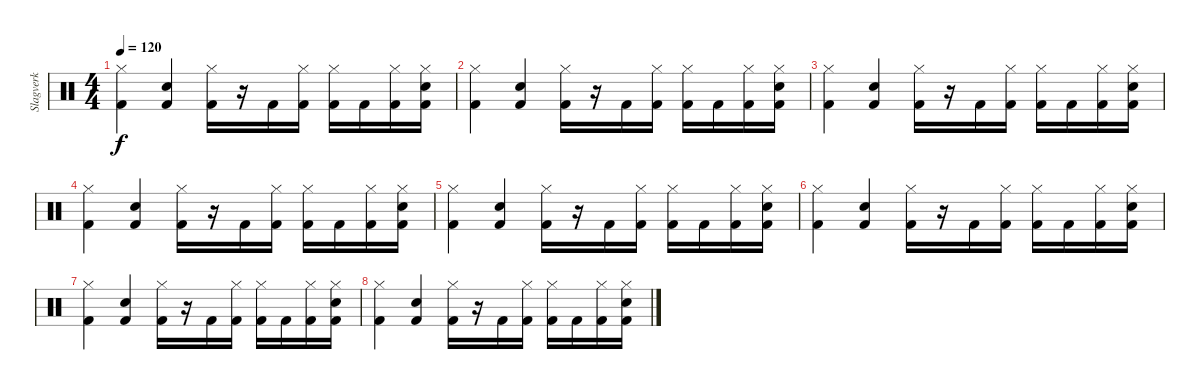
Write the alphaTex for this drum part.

\track ("Slagverk" "Slagverk") {instrument percussion}
\staff {score}
\articulation defaults
\ts (4 4)
\tempo 120
\clef neutral
\ks c
("Kick (hit) 2" "Hi-Hat (closed)").4{dy f} ("Kick (hit) 2" "Electric Snare (hit)").4 ("Kick (hit) 2" "Hi-Hat (closed)").16 r.16 "Kick (hit) 2".16 ("Kick (hit) 2" "Hi-Hat (closed)").16 ("Kick (hit) 2" "Hi-Hat (closed)").16 "Kick (hit) 2".16 ("Kick (hit) 2" "Hi-Hat (closed)").16 ("Kick (hit) 2" "Hi-Hat (closed)" "Electric Snare (hit)").16 |
("Kick (hit) 2" "Hi-Hat (closed)").4 ("Kick (hit) 2" "Electric Snare (hit)").4 ("Kick (hit) 2" "Hi-Hat (closed)").16 r.16 "Kick (hit) 2".16 ("Kick (hit) 2" "Hi-Hat (closed)").16 ("Kick (hit) 2" "Hi-Hat (closed)").16 "Kick (hit) 2".16 ("Kick (hit) 2" "Hi-Hat (closed)").16 ("Kick (hit) 2" "Hi-Hat (closed)" "Electric Snare (hit)").16 |
("Kick (hit) 2" "Hi-Hat (closed)").4 ("Kick (hit) 2" "Electric Snare (hit)").4 ("Kick (hit) 2" "Hi-Hat (closed)").16 r.16 "Kick (hit) 2".16 ("Kick (hit) 2" "Hi-Hat (closed)").16 ("Kick (hit) 2" "Hi-Hat (closed)").16 "Kick (hit) 2".16 ("Kick (hit) 2" "Hi-Hat (closed)").16 ("Kick (hit) 2" "Hi-Hat (closed)" "Electric Snare (hit)").16 |
("Kick (hit) 2" "Hi-Hat (closed)").4 ("Kick (hit) 2" "Electric Snare (hit)").4 ("Kick (hit) 2" "Hi-Hat (closed)").16 r.16 "Kick (hit) 2".16 ("Kick (hit) 2" "Hi-Hat (closed)").16 ("Kick (hit) 2" "Hi-Hat (closed)").16 "Kick (hit) 2".16 ("Kick (hit) 2" "Hi-Hat (closed)").16 ("Kick (hit) 2" "Hi-Hat (closed)" "Electric Snare (hit)").16 |
("Kick (hit) 2" "Hi-Hat (closed)").4 ("Kick (hit) 2" "Electric Snare (hit)").4 ("Kick (hit) 2" "Hi-Hat (closed)").16 r.16 "Kick (hit) 2".16 ("Kick (hit) 2" "Hi-Hat (closed)").16 ("Kick (hit) 2" "Hi-Hat (closed)").16 "Kick (hit) 2".16 ("Kick (hit) 2" "Hi-Hat (closed)").16 ("Kick (hit) 2" "Hi-Hat (closed)" "Electric Snare (hit)").16 |
("Kick (hit) 2" "Hi-Hat (closed)").4 ("Kick (hit) 2" "Electric Snare (hit)").4 ("Kick (hit) 2" "Hi-Hat (closed)").16 r.16 "Kick (hit) 2".16 ("Kick (hit) 2" "Hi-Hat (closed)").16 ("Kick (hit) 2" "Hi-Hat (closed)").16 "Kick (hit) 2".16 ("Kick (hit) 2" "Hi-Hat (closed)").16 ("Kick (hit) 2" "Hi-Hat (closed)" "Electric Snare (hit)").16 |
("Kick (hit) 2" "Hi-Hat (closed)").4 ("Kick (hit) 2" "Electric Snare (hit)").4 ("Kick (hit) 2" "Hi-Hat (closed)").16 r.16 "Kick (hit) 2".16 ("Kick (hit) 2" "Hi-Hat (closed)").16 ("Kick (hit) 2" "Hi-Hat (closed)").16 "Kick (hit) 2".16 ("Kick (hit) 2" "Hi-Hat (closed)").16 ("Kick (hit) 2" "Hi-Hat (closed)" "Electric Snare (hit)").16 |
("Kick (hit) 2" "Hi-Hat (closed)").4 ("Kick (hit) 2" "Electric Snare (hit)").4 ("Kick (hit) 2" "Hi-Hat (closed)").16 r.16 "Kick (hit) 2".16 ("Kick (hit) 2" "Hi-Hat (closed)").16 ("Kick (hit) 2" "Hi-Hat (closed)").16 "Kick (hit) 2".16 ("Kick (hit) 2" "Hi-Hat (closed)").16 ("Kick (hit) 2" "Hi-Hat (closed)" "Electric Snare (hit)").16
